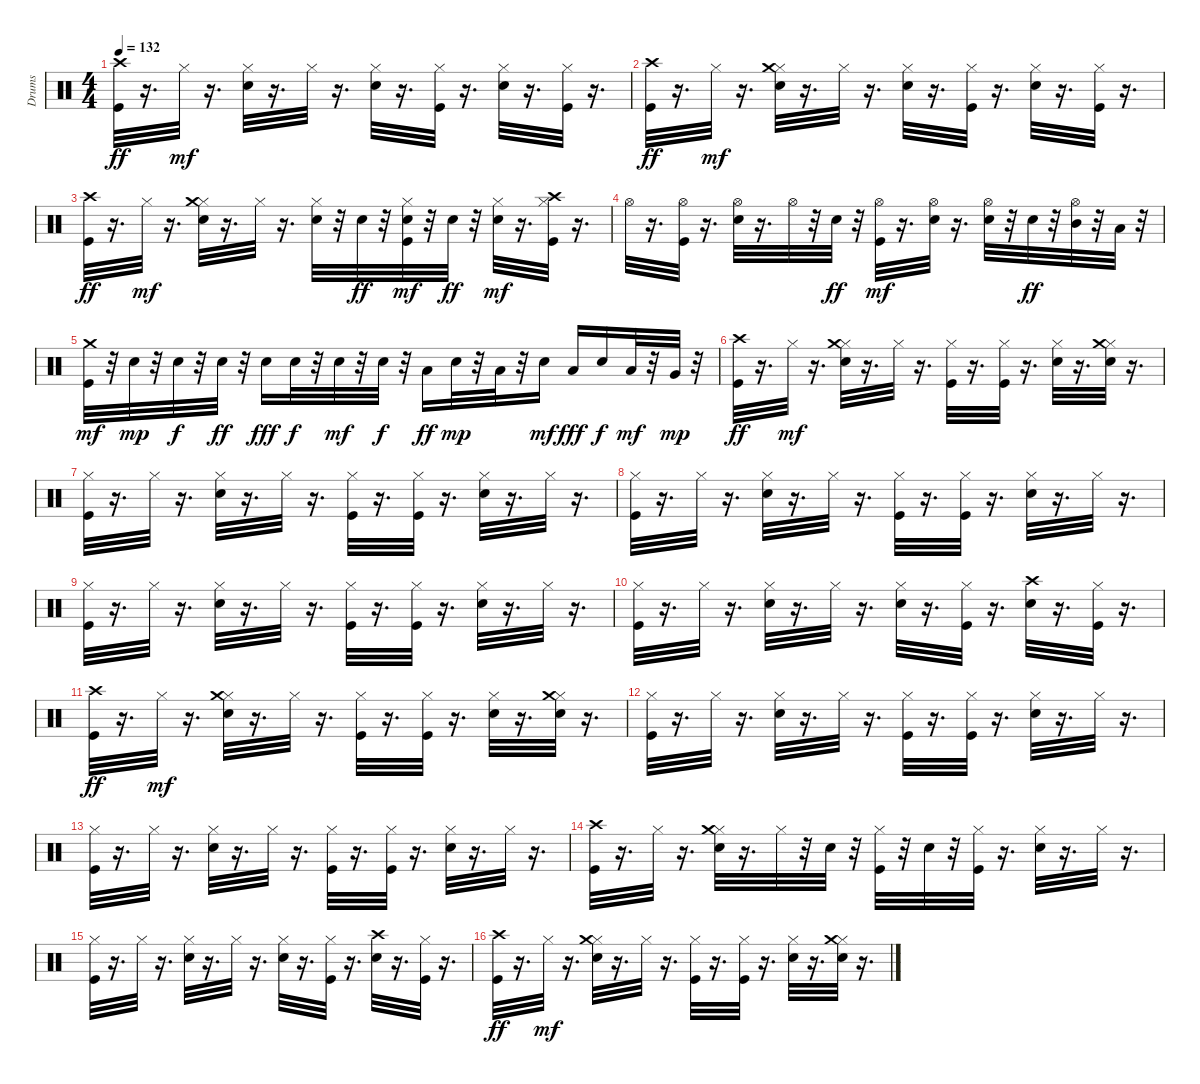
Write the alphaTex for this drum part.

\track ("Drums" "Drums") {instrument percussion}
\staff {score}
\articulation defaults
\ts (4 4)
\tempo 132
\clef neutral
\ks c
("Kick (hit)" "Crash high (hit)").32{dy ff} r.16{d} "Hi-Hat (closed)".32{dy mf} r.16{d} ("Electric Snare (hit)" "Hi-Hat (closed)").32 r.16{d} "Hi-Hat (closed)".32 r.16{d} ("Electric Snare (hit)" "Hi-Hat (closed)").32 r.16{d} ("Kick (hit)" "Hi-Hat (closed)").32 r.16{d} ("Electric Snare (hit)" "Hi-Hat (closed)").32 r.16{d} ("Kick (hit)" "Hi-Hat (closed)").32 r.16{d} |
("Kick (hit)" "Crash high (hit)").32{dy ff} r.16{d} "Hi-Hat (closed)".32{dy mf} r.16{d} ("Electric Snare (hit)" "Hi-Hat (closed)" "Crash medium (hit)").32 r.16{d} "Hi-Hat (closed)".32 r.16{d} ("Electric Snare (hit)" "Hi-Hat (closed)").32 r.16{d} ("Kick (hit)" "Hi-Hat (closed)").32 r.16{d} ("Electric Snare (hit)" "Hi-Hat (closed)").32 r.16{d} ("Kick (hit)" "Hi-Hat (closed)").32 r.16{d} |
("Kick (hit)" "Crash high (hit)").32{dy ff} r.16{d} "Hi-Hat (closed)".32{dy mf} r.16{d} ("Electric Snare (hit)" "Hi-Hat (closed)" "Crash medium (hit)").32 r.16{d} "Hi-Hat (closed)".32 r.16{d} ("Electric Snare (hit)" "Hi-Hat (closed)").32 r.32 "Electric Snare (hit)".32{dy ff} r.32 ("Kick (hit)" "Electric Snare (hit)" "Hi-Hat (closed)").32{dy mf} r.32 "Electric Snare (hit)".32{dy ff} r.32 ("Electric Snare (hit)" "Hi-Hat (closed)").32{dy mf} r.16{d} ("Kick (hit)" "Hi-Hat (closed)" "Crash high (hit)").32 r.16{d} |
"Hi-Hat (open)".32 r.16{d} ("Kick (hit)" "Hi-Hat (open)").32 r.16{d} ("Electric Snare (hit)" "Hi-Hat (open)").32 r.16{d} "Hi-Hat (open)".32 r.32 "Electric Snare (hit)".32{dy ff} r.32 ("Kick (hit)" "Hi-Hat (open)").32{dy mf} r.16{d} ("Electric Snare (hit)" "Hi-Hat (open)").32 r.16{d} ("Electric Snare (hit)" "Hi-Hat (open)").32 r.32 "Electric Snare (hit)".32{dy ff} r.32 ("Hi-Hat (open)" "Mid Tom (hit)").32 r.32 "Low Tom (hit)".32 r.32 |
("Kick (hit)" "Crash medium (hit)").32{dy mf} r.32 "Electric Snare (hit)".32{dy mp} r.32 "Electric Snare (hit)".32{dy f} r.32 "Electric Snare (hit)".32{dy ff} r.32 "Electric Snare (hit)".16{dy fff} "Electric Snare (hit)".32{dy f} r.32 "Electric Snare (hit)".32{dy mf} r.32 "Electric Snare (hit)".32{dy f} r.32 "Low Tom (hit)".16{dy ff} "Electric Snare (hit)".32{dy mp} r.32 "Low Tom (hit)".32 r.32 "Electric Snare (hit)".16{dy mf} "Low Floor Tom (hit)".16{dy fff} "Electric Snare (hit)".16{dy f} "Low Floor Tom (hit)".32{dy mf} r.32 "Very Low Tom (hit)".32{dy mp} r.32 |
("Kick (hit)" "Crash high (hit)").32{dy ff} r.16{d} "Hi-Hat (closed)".32{dy mf} r.16{d} ("Electric Snare (hit)" "Hi-Hat (closed)" "Crash medium (hit)").32 r.16{d} "Hi-Hat (closed)".32 r.16{d} ("Kick (hit)" "Hi-Hat (closed)").32 r.16{d} ("Kick (hit)" "Hi-Hat (closed)").32 r.16{d} ("Electric Snare (hit)" "Hi-Hat (closed)").32 r.16{d} ("Electric Snare (hit)" "Hi-Hat (closed)" "Crash medium (hit)").32 r.16{d} |
("Kick (hit)" "Hi-Hat (closed)").32 r.16{d} "Hi-Hat (closed)".32 r.16{d} ("Electric Snare (hit)" "Hi-Hat (closed)").32 r.16{d} "Hi-Hat (closed)".32 r.16{d} ("Kick (hit)" "Hi-Hat (closed)").32 r.16{d} ("Kick (hit)" "Hi-Hat (closed)").32 r.16{d} ("Electric Snare (hit)" "Hi-Hat (closed)").32 r.16{d} "Hi-Hat (closed)".32 r.16{d} |
("Kick (hit)" "Hi-Hat (closed)").32 r.16{d} "Hi-Hat (closed)".32 r.16{d} ("Electric Snare (hit)" "Hi-Hat (closed)").32 r.16{d} "Hi-Hat (closed)".32 r.16{d} ("Kick (hit)" "Hi-Hat (closed)").32 r.16{d} ("Kick (hit)" "Hi-Hat (closed)").32 r.16{d} ("Electric Snare (hit)" "Hi-Hat (closed)").32 r.16{d} "Hi-Hat (closed)".32 r.16{d} |
("Kick (hit)" "Hi-Hat (closed)").32 r.16{d} "Hi-Hat (closed)".32 r.16{d} ("Electric Snare (hit)" "Hi-Hat (closed)").32 r.16{d} "Hi-Hat (closed)".32 r.16{d} ("Kick (hit)" "Hi-Hat (closed)").32 r.16{d} ("Kick (hit)" "Hi-Hat (closed)").32 r.16{d} ("Electric Snare (hit)" "Hi-Hat (closed)").32 r.16{d} "Hi-Hat (closed)".32 r.16{d} |
("Kick (hit)" "Hi-Hat (closed)").32 r.16{d} "Hi-Hat (closed)".32 r.16{d} ("Electric Snare (hit)" "Hi-Hat (closed)").32 r.16{d} "Hi-Hat (closed)".32 r.16{d} ("Electric Snare (hit)" "Hi-Hat (closed)").32 r.16{d} ("Kick (hit)" "Hi-Hat (closed)").32 r.16{d} ("Electric Snare (hit)" "Crash high (hit)").32 r.16{d} ("Kick (hit)" "Hi-Hat (closed)").32 r.16{d} |
("Kick (hit)" "Crash high (hit)").32{dy ff} r.16{d} "Hi-Hat (closed)".32{dy mf} r.16{d} ("Electric Snare (hit)" "Hi-Hat (closed)" "Crash medium (hit)").32 r.16{d} "Hi-Hat (closed)".32 r.16{d} ("Kick (hit)" "Hi-Hat (closed)").32 r.16{d} ("Kick (hit)" "Hi-Hat (closed)").32 r.16{d} ("Electric Snare (hit)" "Hi-Hat (closed)").32 r.16{d} ("Electric Snare (hit)" "Hi-Hat (closed)" "Crash medium (hit)").32 r.16{d} |
("Kick (hit)" "Hi-Hat (closed)").32 r.16{d} "Hi-Hat (closed)".32 r.16{d} ("Electric Snare (hit)" "Hi-Hat (closed)").32 r.16{d} "Hi-Hat (closed)".32 r.16{d} ("Kick (hit)" "Hi-Hat (closed)").32 r.16{d} ("Kick (hit)" "Hi-Hat (closed)").32 r.16{d} ("Electric Snare (hit)" "Hi-Hat (closed)").32 r.16{d} "Hi-Hat (closed)".32 r.16{d} |
("Kick (hit)" "Hi-Hat (closed)").32 r.16{d} "Hi-Hat (closed)".32 r.16{d} ("Electric Snare (hit)" "Hi-Hat (closed)").32 r.16{d} "Hi-Hat (closed)".32 r.16{d} ("Kick (hit)" "Hi-Hat (closed)").32 r.16{d} ("Kick (hit)" "Hi-Hat (closed)").32 r.16{d} ("Electric Snare (hit)" "Hi-Hat (closed)").32 r.16{d} "Hi-Hat (closed)".32 r.16{d} |
("Kick (hit)" "Crash high (hit)").32 r.16{d} "Hi-Hat (closed)".32 r.16{d} ("Electric Snare (hit)" "Hi-Hat (closed)" "Crash medium (hit)").32 r.16{d} "Hi-Hat (closed)".32 r.32 "Electric Snare (hit)".32 r.32 ("Kick (hit)" "Hi-Hat (closed)").32 r.32 "Electric Snare (hit)".32 r.32 ("Kick (hit)" "Hi-Hat (closed)").32 r.16{d} ("Electric Snare (hit)" "Hi-Hat (closed)").32 r.16{d} "Hi-Hat (closed)".32 r.16{d} |
("Kick (hit)" "Hi-Hat (closed)").32 r.16{d} "Hi-Hat (closed)".32 r.16{d} ("Electric Snare (hit)" "Hi-Hat (closed)").32 r.16{d} "Hi-Hat (closed)".32 r.16{d} ("Electric Snare (hit)" "Hi-Hat (closed)").32 r.16{d} ("Kick (hit)" "Hi-Hat (closed)").32 r.16{d} ("Electric Snare (hit)" "Crash high (hit)").32 r.16{d} ("Kick (hit)" "Hi-Hat (closed)").32 r.16{d} |
("Kick (hit)" "Crash high (hit)").32{dy ff} r.16{d} "Hi-Hat (closed)".32{dy mf} r.16{d} ("Electric Snare (hit)" "Hi-Hat (closed)" "Crash medium (hit)").32 r.16{d} "Hi-Hat (closed)".32 r.16{d} ("Kick (hit)" "Hi-Hat (closed)").32 r.16{d} ("Kick (hit)" "Hi-Hat (closed)").32 r.16{d} ("Electric Snare (hit)" "Hi-Hat (closed)").32 r.16{d} ("Electric Snare (hit)" "Hi-Hat (closed)" "Crash medium (hit)").32 r.16{d}
